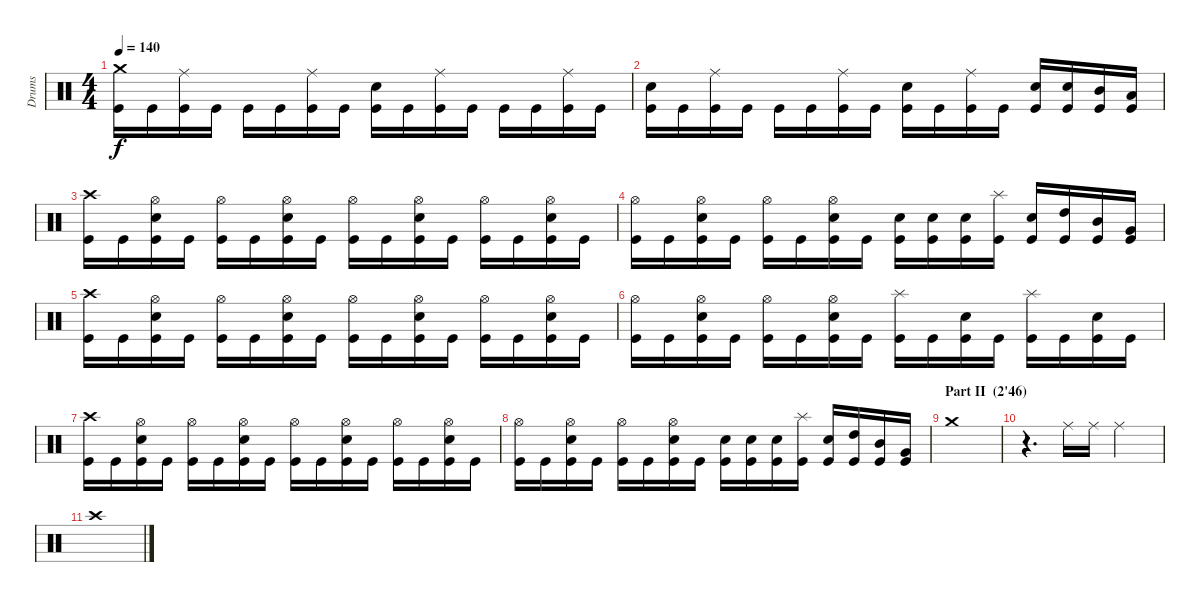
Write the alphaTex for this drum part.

\track ("Drums" "Drums") {instrument percussion}
\staff {score}
\articulation defaults
\ts (4 4)
\tempo 140
\clef neutral
\ks c
("Crash medium (hit)" "Kick (hit)").16{dy f} "Kick (hit)".16 ("Ride (middle)" "Kick (hit)").16 "Kick (hit)".16 "Kick (hit)".16 "Kick (hit)".16 ("Ride (middle)" "Kick (hit)").16 "Kick (hit)".16 ("Electric Snare (hit)" "Kick (hit)").16 "Kick (hit)".16 ("Ride (middle)" "Kick (hit)").16 "Kick (hit)".16 "Kick (hit)".16 "Kick (hit)".16 ("Ride (middle)" "Kick (hit)").16 "Kick (hit)".16 |
("Electric Snare (hit)" "Kick (hit)").16 "Kick (hit)".16 ("Ride (middle)" "Kick (hit)").16 "Kick (hit)".16 "Kick (hit)".16 "Kick (hit)".16 ("Ride (middle)" "Kick (hit)").16 "Kick (hit)".16 ("Electric Snare (hit)" "Kick (hit)").16 "Kick (hit)".16 ("Ride (middle)" "Kick (hit)").16 "Kick (hit)".16 ("Snare (hit) 2" "Kick (hit)").16 ("Snare (hit) 2" "Kick (hit)").16 ("Mid Tom (hit)" "Kick (hit)").16 ("Low Tom (hit)" "Kick (hit)").16 |
("Crash high (hit)" "Kick (hit)").16 "Kick (hit)".16 ("Hi-Hat (open)" "Electric Snare (hit)" "Kick (hit)").16 "Kick (hit)".16 ("Hi-Hat (open)" "Kick (hit)").16 "Kick (hit)".16 ("Hi-Hat (open)" "Electric Snare (hit)" "Kick (hit)").16 "Kick (hit)".16 ("Hi-Hat (open)" "Kick (hit)").16 "Kick (hit)".16 ("Hi-Hat (open)" "Electric Snare (hit)" "Kick (hit)").16 "Kick (hit)".16 ("Hi-Hat (open)" "Kick (hit)").16 "Kick (hit)".16 ("Hi-Hat (open)" "Electric Snare (hit)" "Kick (hit)").16 "Kick (hit)".16 |
("Hi-Hat (open)" "Kick (hit)").16 "Kick (hit)".16 ("Hi-Hat (open)" "Electric Snare (hit)" "Kick (hit)").16 "Kick (hit)".16 ("Hi-Hat (open)" "Kick (hit)").16 "Kick (hit)".16 ("Hi-Hat (open)" "Electric Snare (hit)" "Kick (hit)").16 "Kick (hit)".16 ("Electric Snare (hit)" "Kick (hit)").16 ("Electric Snare (hit)" "Kick (hit)").16 ("Electric Snare (hit)" "Kick (hit)").16 ("Splash (hit)" "Kick (hit)").16 ("Snare (hit) 2" "Kick (hit)").16 ("High Tom (hit)" "Kick (hit)").16 ("Mid Tom (hit)" "Kick (hit)").16 ("Very Low Tom (hit)" "Kick (hit)").16 |
("Crash high (hit)" "Kick (hit)").16 "Kick (hit)".16 ("Hi-Hat (open)" "Electric Snare (hit)" "Kick (hit)").16 "Kick (hit)".16 ("Hi-Hat (open)" "Kick (hit)").16 "Kick (hit)".16 ("Hi-Hat (open)" "Electric Snare (hit)" "Kick (hit)").16 "Kick (hit)".16 ("Hi-Hat (open)" "Kick (hit)").16 "Kick (hit)".16 ("Hi-Hat (open)" "Electric Snare (hit)" "Kick (hit)").16 "Kick (hit)".16 ("Hi-Hat (open)" "Kick (hit)").16 "Kick (hit)".16 ("Hi-Hat (open)" "Electric Snare (hit)" "Kick (hit)").16 "Kick (hit)".16 |
("Hi-Hat (open)" "Kick (hit)").16 "Kick (hit)".16 ("Hi-Hat (open)" "Electric Snare (hit)" "Kick (hit)").16 "Kick (hit)".16 ("Hi-Hat (open)" "Kick (hit)").16 "Kick (hit)".16 ("Hi-Hat (open)" "Electric Snare (hit)" "Kick (hit)").16 "Kick (hit)".16 ("Splash (hit)" "Kick (hit)").16 "Kick (hit)".16 ("Electric Snare (hit)" "Kick (hit)").16 "Kick (hit)".16 ("Splash (hit)" "Kick (hit)").16 "Kick (hit)".16 ("Electric Snare (hit)" "Kick (hit)").16 "Kick (hit)".16 |
("Crash high (hit)" "Kick (hit)").16 "Kick (hit)".16 ("Hi-Hat (open)" "Electric Snare (hit)" "Kick (hit)").16 "Kick (hit)".16 ("Hi-Hat (open)" "Kick (hit)").16 "Kick (hit)".16 ("Hi-Hat (open)" "Electric Snare (hit)" "Kick (hit)").16 "Kick (hit)".16 ("Hi-Hat (open)" "Kick (hit)").16 "Kick (hit)".16 ("Hi-Hat (open)" "Electric Snare (hit)" "Kick (hit)").16 "Kick (hit)".16 ("Hi-Hat (open)" "Kick (hit)").16 "Kick (hit)".16 ("Hi-Hat (open)" "Electric Snare (hit)" "Kick (hit)").16 "Kick (hit)".16 |
("Hi-Hat (open)" "Kick (hit)").16 "Kick (hit)".16 ("Hi-Hat (open)" "Electric Snare (hit)" "Kick (hit)").16 "Kick (hit)".16 ("Hi-Hat (open)" "Kick (hit)").16 "Kick (hit)".16 ("Hi-Hat (open)" "Electric Snare (hit)" "Kick (hit)").16 "Kick (hit)".16 ("Electric Snare (hit)" "Kick (hit)").16 ("Electric Snare (hit)" "Kick (hit)").16 ("Electric Snare (hit)" "Kick (hit)").16 ("Splash (hit)" "Kick (hit)").16 ("Snare (hit) 2" "Kick (hit)").16 ("High Tom (hit)" "Kick (hit)").16 ("Mid Tom (hit)" "Kick (hit)").16 ("Very Low Tom (hit)" "Kick (hit)").16 |
\section ("" "Part II  (2'46)")
"Crash medium (hit)".1 |
r.4{d} "Ride (middle)".16 "Ride (middle)".16 "Ride (middle)".2 |
"Crash high (hit)".1
